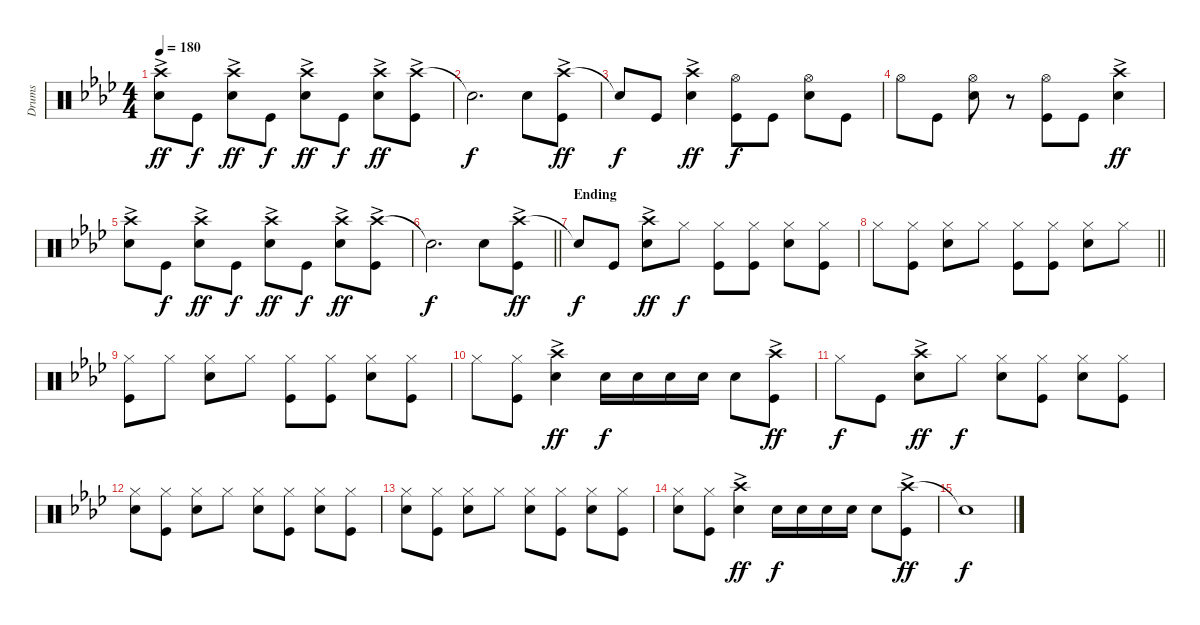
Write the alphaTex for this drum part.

\track ("Drums" "Drums") {instrument percussion}
\staff {score}
\articulation defaults
\ts (4 4)
\tempo 180
\clef neutral
\ks ab
("Crash high (hit)"{ac} "Snare (hit) 2").8{dy ff} "Kick (hit)".8{dy f} ("Crash high (hit)"{ac} "Snare (hit) 2").8{dy ff} "Kick (hit)".8{dy f} ("Crash high (hit)"{ac} "Snare (hit) 2").8{dy ff} "Kick (hit)".8{dy f} ("Crash high (hit)"{ac} "Snare (hit) 2").8{dy ff} ("Crash high (hit)"{ac} "Kick (hit)").8 |
"Snare (hit)"{t}.2{d dy f} "Snare (hit) 2".8 ("Crash high (hit)"{ac} "Kick (hit)").8{dy ff} |
"Snare (hit)"{t}.8{dy f} "Kick (hit)".8 ("Crash high (hit)"{ac} "Snare (hit) 2").4{dy ff} ("Hi-Hat (open)" "Kick (hit)").8{dy f} "Kick (hit)".8 ("Hi-Hat (open)" "Snare (hit) 2").8 "Kick (hit)".8 |
"Hi-Hat (open)".8 "Kick (hit)".8 ("Hi-Hat (open)" "Snare (hit) 2").8 r.8 ("Hi-Hat (open)" "Kick (hit)").8 "Kick (hit)".8 ("Crash high (hit)"{ac} "Snare (hit) 2").4{dy ff} |
("Crash high (hit)"{ac} "Snare (hit) 2").8 "Kick (hit)".8{dy f} ("Crash high (hit)"{ac} "Snare (hit) 2").8{dy ff} "Kick (hit)".8{dy f} ("Crash high (hit)"{ac} "Snare (hit) 2").8{dy ff} "Kick (hit)".8{dy f} ("Crash high (hit)"{ac} "Snare (hit) 2").8{dy ff} ("Crash high (hit)"{ac} "Kick (hit)").8 |
\barLineRight lightlight "Snare (hit)"{t}.2{d dy f} "Snare (hit) 2".8
("Crash high (hit)"{ac} "Kick (hit)").8{dy ff} |
\section ("" "Ending")
"Snare (hit)"{t}.8{dy f} "Kick (hit)".8 ("Crash high (hit)"{ac} "Snare (hit) 2").8{dy ff} "Hi-Hat (closed)".8{dy f} ("Hi-Hat (closed)" "Kick (hit)").8 ("Hi-Hat (closed)" "Kick (hit)").8 ("Hi-Hat (closed)" "Snare (hit) 2").8 ("Hi-Hat (closed)" "Kick (hit)").8 |
\barLineRight lightlight "Hi-Hat (closed)".8
("Hi-Hat (closed)" "Kick (hit)").8 ("Hi-Hat (closed)" "Snare (hit) 2").8 "Hi-Hat (closed)".8 ("Hi-Hat (closed)" "Kick (hit)").8 ("Hi-Hat (closed)" "Kick (hit)").8 ("Hi-Hat (closed)" "Snare (hit) 2").8 "Hi-Hat (closed)".8 |
("Hi-Hat (closed)" "Kick (hit)").8 "Hi-Hat (closed)".8 ("Hi-Hat (closed)" "Snare (hit) 2").8 "Hi-Hat (closed)".8 ("Hi-Hat (closed)" "Kick (hit)").8 ("Hi-Hat (closed)" "Kick (hit)").8 ("Hi-Hat (closed)" "Snare (hit) 2").8 ("Hi-Hat (closed)" "Kick (hit)").8 |
"Hi-Hat (closed)".8 ("Hi-Hat (closed)" "Kick (hit)").8 ("Crash high (hit)"{ac} "Snare (hit) 2").4{dy ff} "Snare (hit) 2".16{dy f} "Snare (hit) 2".16 "Snare (hit) 2".16 "Snare (hit) 2".16 "Snare (hit) 2".8 ("Crash high (hit)"{ac} "Kick (hit)").8{dy ff} |
"Hi-Hat (closed)".8{dy f} "Kick (hit)".8 ("Crash high (hit)"{ac} "Snare (hit) 2").8{dy ff} "Hi-Hat (closed)".8{dy f} ("Hi-Hat (closed)" "Snare (hit) 2").8 ("Hi-Hat (closed)" "Kick (hit)").8 ("Hi-Hat (closed)" "Snare (hit) 2").8 ("Hi-Hat (closed)" "Kick (hit)").8 |
("Hi-Hat (closed)" "Snare (hit) 2").8 ("Hi-Hat (closed)" "Kick (hit)").8 ("Hi-Hat (closed)" "Snare (hit) 2").8 "Hi-Hat (closed)".8 ("Hi-Hat (closed)" "Snare (hit) 2").8 ("Hi-Hat (closed)" "Kick (hit)").8 ("Hi-Hat (closed)" "Snare (hit) 2").8 ("Hi-Hat (closed)" "Kick (hit)").8 |
("Hi-Hat (closed)" "Snare (hit) 2").8 ("Hi-Hat (closed)" "Kick (hit)").8 ("Hi-Hat (closed)" "Snare (hit) 2").8 "Hi-Hat (closed)".8 ("Hi-Hat (closed)" "Snare (hit) 2").8 ("Hi-Hat (closed)" "Kick (hit)").8 ("Hi-Hat (closed)" "Snare (hit) 2").8 ("Hi-Hat (closed)" "Kick (hit)").8 |
("Hi-Hat (closed)" "Snare (hit) 2").8 ("Hi-Hat (closed)" "Kick (hit)").8 ("Crash high (hit)"{ac} "Snare (hit) 2").4{dy ff} "Snare (hit) 2".16{dy f} "Snare (hit) 2".16 "Snare (hit) 2".16 "Snare (hit) 2".16 "Snare (hit) 2".8 ("Crash high (hit)"{ac} "Kick (hit)").8{dy ff} |
"Snare (hit)"{t}.1{dy f}
